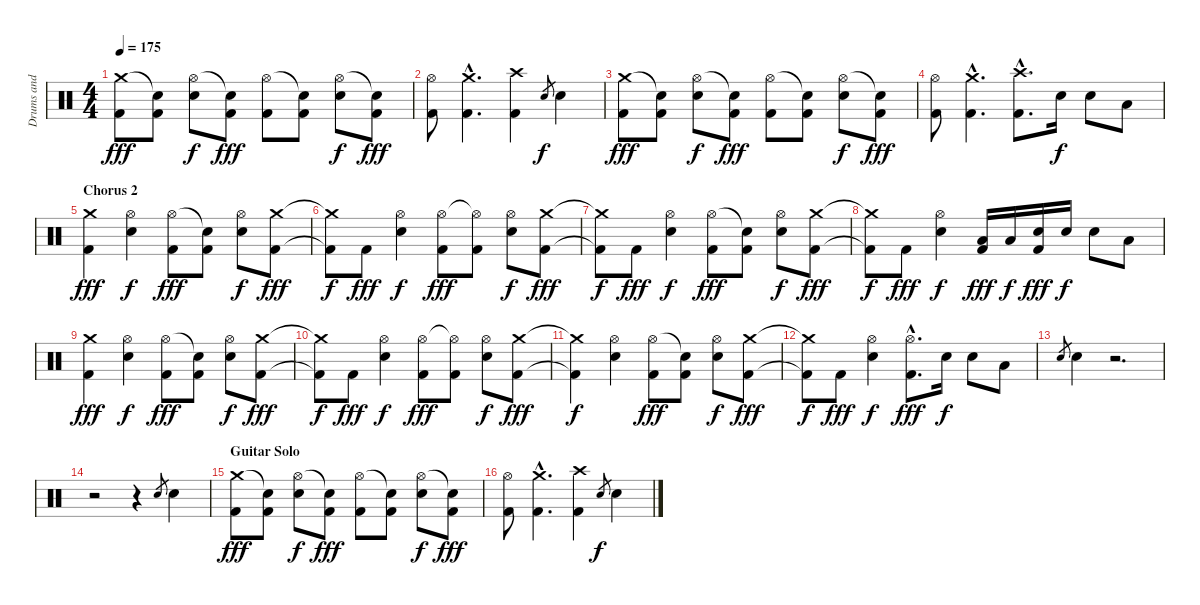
\track ("Drums and Percussion" "Drums and ") {instrument percussion}
\staff {score}
\articulation defaults
\ts (4 4)
\tempo 175
\clef neutral
\ks c
("Crash medium (hit)" "Kick (hit) 2").8{dy fff} ("Snare (hit)"{t} "Kick (hit) 2").8 ("Hi-Hat (open)" "Snare (hit) 2").8{dy f} ("Snare (hit)"{t} "Kick (hit) 2").8{dy fff} ("Hi-Hat (open)" "Kick (hit) 2").8 ("Snare (hit)"{t} "Kick (hit) 2").8 ("Hi-Hat (open)" "Snare (hit) 2").8{dy f} ("Snare (hit)"{t} "Kick (hit) 2").8{dy fff} |
("Hi-Hat (open)" "Kick (hit) 2").8 ("Crash medium (hit)"{hac} "Kick (hit) 2"{hac}).4{d} ("Crash high (hit)" "Kick (hit) 2").4 "Snare (hit) 2".8{gr dy f} "Snare (hit) 2".4 |
("Crash medium (hit)" "Kick (hit) 2").8{dy fff} ("Snare (hit)"{t} "Kick (hit) 2").8 ("Hi-Hat (open)" "Snare (hit) 2").8{dy f} ("Snare (hit)"{t} "Kick (hit) 2").8{dy fff} ("Hi-Hat (open)" "Kick (hit) 2").8 ("Snare (hit)"{t} "Kick (hit) 2").8 ("Hi-Hat (open)" "Snare (hit) 2").8{dy f} ("Snare (hit)"{t} "Kick (hit) 2").8{dy fff} |
("Hi-Hat (open)" "Kick (hit) 2").8 ("Crash medium (hit)"{hac} "Kick (hit) 2"{hac}).4{d} ("Crash high (hit)"{hac} "Kick (hit) 2"{hac}).8{d} "Snare (hit) 2".16{dy f} "Snare (hit) 2".8 "Low Tom (hit)".8 |
\section ("" "Chorus 2")
("Crash medium (hit)" "Kick (hit) 2").4{dy fff} ("Hi-Hat (open)" "Snare (hit) 2").4{dy f} ("Hi-Hat (open)" "Kick (hit) 2").8{dy fff} ("Snare (hit)"{t} "Kick (hit) 2").8 ("Hi-Hat (open)" "Snare (hit) 2").8{dy f} ("Crash medium (hit)" "Kick (hit) 2").8{dy fff} |
("Crash medium (hit)"{t} "Kick (hit) 2"{t}).8{dy f} "Kick (hit) 2".8{dy fff} ("Hi-Hat (open)" "Snare (hit) 2").4{dy f} ("Hi-Hat (open)" "Kick (hit) 2").8{dy fff} ("Hi-Hat (open)"{t} "Kick (hit) 2").8 ("Hi-Hat (open)" "Snare (hit) 2").8{dy f} ("Crash medium (hit)" "Kick (hit) 2").8{dy fff} |
("Crash medium (hit)"{t} "Kick (hit) 2"{t}).8{dy f} "Kick (hit) 2".8{dy fff} ("Hi-Hat (open)" "Snare (hit) 2").4{dy f} ("Hi-Hat (open)" "Kick (hit) 2").8{dy fff} ("Snare (hit)"{t} "Kick (hit) 2").8 ("Hi-Hat (open)" "Snare (hit) 2").8{dy f} ("Crash medium (hit)" "Kick (hit) 2").8{dy fff} |
("Crash medium (hit)"{t} "Kick (hit) 2"{t}).8{dy f} "Kick (hit) 2".8{dy fff} ("Hi-Hat (open)" "Snare (hit) 2").4{dy f} ("Low Tom (hit)" "Kick (hit) 2").16{dy fff} "Low Tom (hit)".16{dy f} ("Snare (hit) 2" "Kick (hit) 2").16{dy fff} "Snare (hit) 2".16{dy f} "Snare (hit) 2".8 "Low Tom (hit)".8 |
("Crash medium (hit)" "Kick (hit) 2").4{dy fff} ("Hi-Hat (open)" "Snare (hit) 2").4{dy f} ("Hi-Hat (open)" "Kick (hit) 2").8{dy fff} ("Snare (hit)"{t} "Kick (hit) 2").8 ("Hi-Hat (open)" "Snare (hit) 2").8{dy f} ("Crash medium (hit)" "Kick (hit) 2").8{dy fff} |
("Crash medium (hit)"{t} "Kick (hit) 2"{t}).8{dy f} "Kick (hit) 2".8{dy fff} ("Hi-Hat (open)" "Snare (hit) 2").4{dy f} ("Hi-Hat (open)" "Kick (hit) 2").8{dy fff} ("Hi-Hat (open)"{t} "Kick (hit) 2").8 ("Hi-Hat (open)" "Snare (hit) 2").8{dy f} ("Crash medium (hit)" "Kick (hit) 2").8{dy fff} |
("Crash medium (hit)"{t} "Kick (hit) 2"{t}).4{dy f} ("Hi-Hat (open)" "Snare (hit) 2").4 ("Hi-Hat (open)" "Kick (hit) 2").8{dy fff} ("Snare (hit)"{t} "Kick (hit) 2").8 ("Hi-Hat (open)" "Snare (hit) 2").8{dy f} ("Crash medium (hit)" "Kick (hit) 2").8{dy fff} |
("Crash medium (hit)"{t} "Kick (hit) 2"{t}).8{dy f} "Kick (hit) 2".8{dy fff} ("Hi-Hat (open)" "Snare (hit) 2").4{dy f} ("Hi-Hat (open)"{hac} "Kick (hit) 2"{hac}).8{d dy fff} "Snare (hit) 2".16{dy f} "Snare (hit) 2".8 "Low Tom (hit)".8 |
"Snare (hit) 2".8{gr} "Snare (hit) 2".4 r.2{d} |
r.2 r.4 "Snare (hit) 2".8{gr} "Snare (hit) 2".4 |
\section ("" "Guitar Solo")
("Crash medium (hit)" "Kick (hit) 2").8{dy fff} ("Snare (hit)"{t} "Kick (hit) 2").8 ("Hi-Hat (open)" "Snare (hit) 2").8{dy f} ("Snare (hit)"{t} "Kick (hit) 2").8{dy fff} ("Hi-Hat (open)" "Kick (hit) 2").8 ("Snare (hit)"{t} "Kick (hit) 2").8 ("Hi-Hat (open)" "Snare (hit) 2").8{dy f} ("Snare (hit)"{t} "Kick (hit) 2").8{dy fff} |
("Hi-Hat (open)" "Kick (hit) 2").8 ("Crash medium (hit)"{hac} "Kick (hit) 2"{hac}).4{d} ("Crash high (hit)" "Kick (hit) 2").4 "Snare (hit) 2".8{gr dy f} "Snare (hit) 2".4
